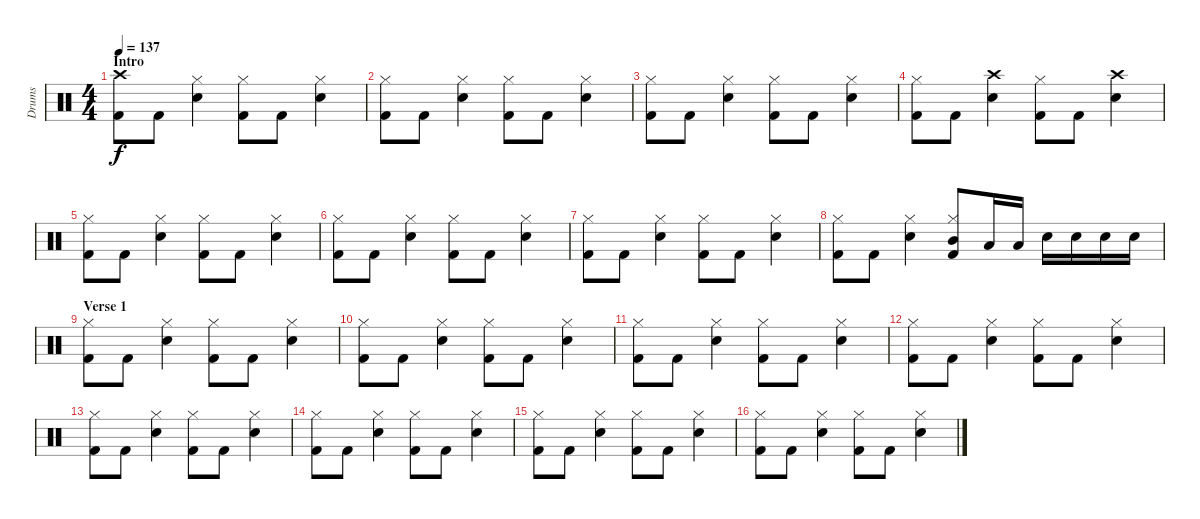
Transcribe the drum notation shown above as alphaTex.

\track ("Drums" "Drums") {instrument percussion}
\staff {score}
\articulation defaults
\ts (4 4)
\section ("" "Intro")
\tempo 137
\clef neutral
\ks c
("Crash high (hit)" "Kick (hit) 2").8{dy f} "Kick (hit) 2".8 ("Hi-Hat (closed)" "Electric Snare (hit)").4 ("Hi-Hat (closed)" "Kick (hit) 2").8 "Kick (hit) 2".8 ("Hi-Hat (closed)" "Electric Snare (hit)").4 |
("Hi-Hat (closed)" "Kick (hit) 2").8 "Kick (hit) 2".8 ("Hi-Hat (closed)" "Electric Snare (hit)").4 ("Hi-Hat (closed)" "Kick (hit) 2").8 "Kick (hit) 2".8 ("Hi-Hat (closed)" "Electric Snare (hit)").4 |
("Hi-Hat (closed)" "Kick (hit) 2").8 "Kick (hit) 2".8 ("Hi-Hat (closed)" "Electric Snare (hit)").4 ("Hi-Hat (closed)" "Kick (hit) 2").8 "Kick (hit) 2".8 ("Hi-Hat (closed)" "Electric Snare (hit)").4 |
("Hi-Hat (closed)" "Kick (hit) 2").8 "Kick (hit) 2".8 ("Crash high (hit)" "Electric Snare (hit)").4 ("Hi-Hat (closed)" "Kick (hit) 2").8 "Kick (hit) 2".8 ("Crash high (hit)" "Electric Snare (hit)").4 |
("Hi-Hat (closed)" "Kick (hit) 2").8 "Kick (hit) 2".8 ("Hi-Hat (closed)" "Electric Snare (hit)").4 ("Hi-Hat (closed)" "Kick (hit) 2").8 "Kick (hit) 2".8 ("Hi-Hat (closed)" "Electric Snare (hit)").4 |
("Hi-Hat (closed)" "Kick (hit) 2").8 "Kick (hit) 2".8 ("Hi-Hat (closed)" "Electric Snare (hit)").4 ("Hi-Hat (closed)" "Kick (hit) 2").8 "Kick (hit) 2".8 ("Hi-Hat (closed)" "Electric Snare (hit)").4 |
("Hi-Hat (closed)" "Kick (hit) 2").8 "Kick (hit) 2".8 ("Hi-Hat (closed)" "Electric Snare (hit)").4 ("Hi-Hat (closed)" "Kick (hit) 2").8 "Kick (hit) 2".8 ("Hi-Hat (closed)" "Electric Snare (hit)").4 |
("Hi-Hat (closed)" "Kick (hit) 2").8 "Kick (hit) 2".8 ("Hi-Hat (closed)" "Electric Snare (hit)").4 ("Hi-Hat (closed)" "Mid Tom (hit)" "Kick (hit) 2").8 "Low Tom (hit)".16 "Low Tom (hit)".16 "Electric Snare (hit)".16 "Electric Snare (hit)".16 "Electric Snare (hit)".16 "Electric Snare (hit)".16 |
\section ("" "Verse 1")
("Hi-Hat (closed)" "Kick (hit) 2").8 "Kick (hit) 2".8 ("Hi-Hat (closed)" "Electric Snare (hit)").4 ("Hi-Hat (closed)" "Kick (hit) 2").8 "Kick (hit) 2".8 ("Hi-Hat (closed)" "Electric Snare (hit)").4 |
("Hi-Hat (closed)" "Kick (hit) 2").8 "Kick (hit) 2".8 ("Hi-Hat (closed)" "Electric Snare (hit)").4 ("Hi-Hat (closed)" "Kick (hit) 2").8 "Kick (hit) 2".8 ("Hi-Hat (closed)" "Electric Snare (hit)").4 |
("Hi-Hat (closed)" "Kick (hit) 2").8 "Kick (hit) 2".8 ("Hi-Hat (closed)" "Electric Snare (hit)").4 ("Hi-Hat (closed)" "Kick (hit) 2").8 "Kick (hit) 2".8 ("Hi-Hat (closed)" "Electric Snare (hit)").4 |
("Hi-Hat (closed)" "Kick (hit) 2").8 "Kick (hit) 2".8 ("Hi-Hat (closed)" "Electric Snare (hit)").4 ("Hi-Hat (closed)" "Kick (hit) 2").8 "Kick (hit) 2".8 ("Hi-Hat (closed)" "Electric Snare (hit)").4 |
("Hi-Hat (closed)" "Kick (hit) 2").8 "Kick (hit) 2".8 ("Hi-Hat (closed)" "Electric Snare (hit)").4 ("Hi-Hat (closed)" "Kick (hit) 2").8 "Kick (hit) 2".8 ("Hi-Hat (closed)" "Electric Snare (hit)").4 |
("Hi-Hat (closed)" "Kick (hit) 2").8 "Kick (hit) 2".8 ("Hi-Hat (closed)" "Electric Snare (hit)").4 ("Hi-Hat (closed)" "Kick (hit) 2").8 "Kick (hit) 2".8 ("Hi-Hat (closed)" "Electric Snare (hit)").4 |
("Hi-Hat (closed)" "Kick (hit) 2").8 "Kick (hit) 2".8 ("Hi-Hat (closed)" "Electric Snare (hit)").4 ("Hi-Hat (closed)" "Kick (hit) 2").8 "Kick (hit) 2".8 ("Hi-Hat (closed)" "Electric Snare (hit)").4 |
("Hi-Hat (closed)" "Kick (hit) 2").8 "Kick (hit) 2".8 ("Hi-Hat (closed)" "Electric Snare (hit)").4 ("Hi-Hat (closed)" "Kick (hit) 2").8 "Kick (hit) 2".8 ("Hi-Hat (closed)" "Electric Snare (hit)").4
